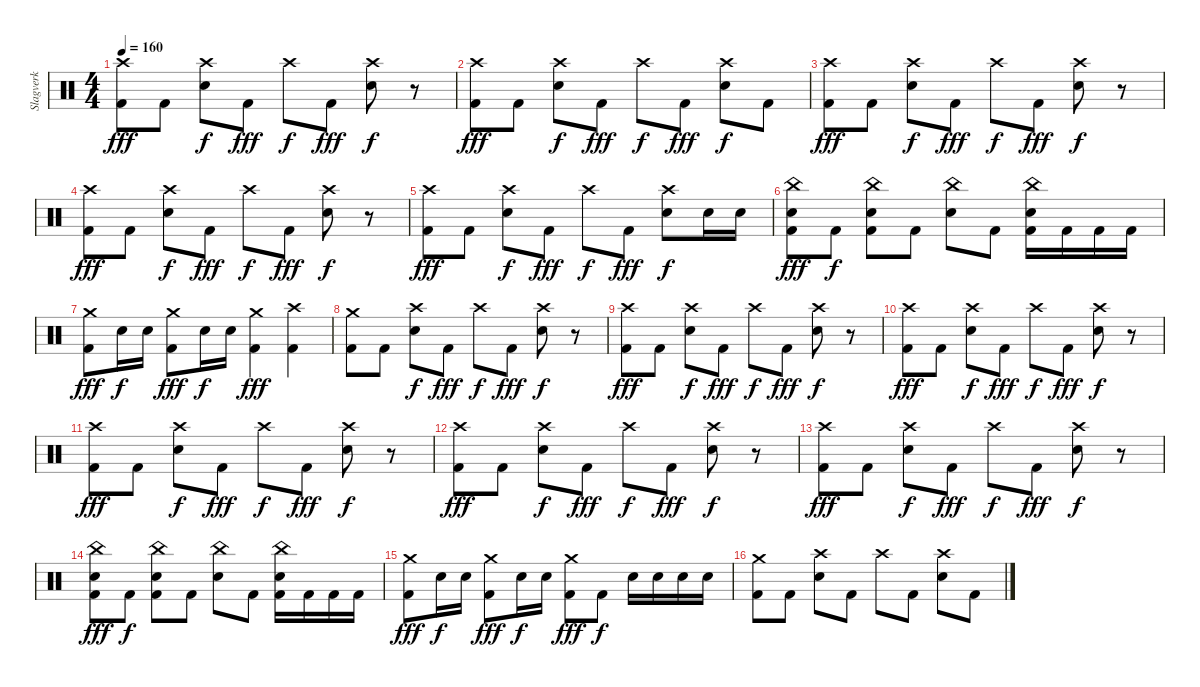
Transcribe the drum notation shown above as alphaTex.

\track ("Slagverk" "Slagverk") {instrument percussion}
\staff {score}
\articulation defaults
\ts (4 4)
\tempo 160
\clef neutral
\ks c
("Crash high (hit)" "Kick (hit) 2").8{dy fff} "Kick (hit) 2".8 ("Crash high (hit)" "Snare (hit) 2").8{dy f} "Kick (hit) 2".8{dy fff} "Crash high (hit)".8{dy f} "Kick (hit) 2".8{dy fff} ("Crash high (hit)" "Snare (hit) 2").8{dy f} r.8 |
("Crash high (hit)" "Kick (hit) 2").8{dy fff} "Kick (hit) 2".8 ("Crash high (hit)" "Snare (hit) 2").8{dy f} "Kick (hit) 2".8{dy fff} "Crash high (hit)".8{dy f} "Kick (hit) 2".8{dy fff} ("Crash high (hit)" "Snare (hit) 2").8{dy f} "Kick (hit) 2".8 |
("Crash high (hit)" "Kick (hit) 2").8{dy fff} "Kick (hit) 2".8 ("Crash high (hit)" "Snare (hit) 2").8{dy f} "Kick (hit) 2".8{dy fff} "Crash high (hit)".8{dy f} "Kick (hit) 2".8{dy fff} ("Crash high (hit)" "Snare (hit) 2").8{dy f} r.8 |
("Crash high (hit)" "Kick (hit) 2").8{dy fff} "Kick (hit) 2".8 ("Crash high (hit)" "Snare (hit) 2").8{dy f} "Kick (hit) 2".8{dy fff} "Crash high (hit)".8{dy f} "Kick (hit) 2".8{dy fff} ("Crash high (hit)" "Snare (hit) 2").8{dy f} r.8 |
("Crash high (hit)" "Kick (hit) 2").8{dy fff} "Kick (hit) 2".8 ("Crash high (hit)" "Snare (hit) 2").8{dy f} "Kick (hit) 2".8{dy fff} "Crash high (hit)".8{dy f} "Kick (hit) 2".8{dy fff} ("Crash high (hit)" "Snare (hit) 2").8{dy f} "Snare (hit) 2".16 "Snare (hit) 2".16 |
("China (hit)" "Snare (hit) 2" "Kick (hit) 2").8{dy fff} "Kick (hit) 2".8{dy f} ("China (hit)" "Snare (hit) 2" "Kick (hit) 2").8 "Kick (hit) 2".8 ("China (hit)" "Snare (hit) 2").8 "Kick (hit) 2".8 ("China (hit)" "Snare (hit) 2" "Kick (hit) 2").16 "Kick (hit) 2".16 "Kick (hit) 2".16 "Kick (hit) 2".16 |
("Crash medium (hit)" "Kick (hit) 2").8{dy fff} "Snare (hit) 2".16{dy f} "Snare (hit) 2".16 ("Crash medium (hit)" "Kick (hit) 2").8{dy fff} "Snare (hit) 2".16{dy f} "Snare (hit) 2".16 ("Crash medium (hit)" "Kick (hit) 2").4{dy fff} ("Crash high (hit)" "Kick (hit) 2").4 |
("Crash medium (hit)" "Kick (hit) 2").8 "Kick (hit) 2".8 ("Crash high (hit)" "Snare (hit) 2").8{dy f} "Kick (hit) 2".8{dy fff} "Crash high (hit)".8{dy f} "Kick (hit) 2".8{dy fff} ("Crash high (hit)" "Snare (hit) 2").8{dy f} r.8 |
("Crash high (hit)" "Kick (hit) 2").8{dy fff} "Kick (hit) 2".8 ("Crash high (hit)" "Snare (hit) 2").8{dy f} "Kick (hit) 2".8{dy fff} "Crash high (hit)".8{dy f} "Kick (hit) 2".8{dy fff} ("Crash high (hit)" "Snare (hit) 2").8{dy f} r.8 |
("Crash high (hit)" "Kick (hit) 2").8{dy fff} "Kick (hit) 2".8 ("Crash high (hit)" "Snare (hit) 2").8{dy f} "Kick (hit) 2".8{dy fff} "Crash high (hit)".8{dy f} "Kick (hit) 2".8{dy fff} ("Crash high (hit)" "Snare (hit) 2").8{dy f} r.8 |
("Crash high (hit)" "Kick (hit) 2").8{dy fff} "Kick (hit) 2".8 ("Crash high (hit)" "Snare (hit) 2").8{dy f} "Kick (hit) 2".8{dy fff} "Crash high (hit)".8{dy f} "Kick (hit) 2".8{dy fff} ("Crash high (hit)" "Snare (hit) 2").8{dy f} r.8 |
("Crash high (hit)" "Kick (hit) 2").8{dy fff} "Kick (hit) 2".8 ("Crash high (hit)" "Snare (hit) 2").8{dy f} "Kick (hit) 2".8{dy fff} "Crash high (hit)".8{dy f} "Kick (hit) 2".8{dy fff} ("Crash high (hit)" "Snare (hit) 2").8{dy f} r.8 |
("Crash high (hit)" "Kick (hit) 2").8{dy fff} "Kick (hit) 2".8 ("Crash high (hit)" "Snare (hit) 2").8{dy f} "Kick (hit) 2".8{dy fff} "Crash high (hit)".8{dy f} "Kick (hit) 2".8{dy fff} ("Crash high (hit)" "Snare (hit) 2").8{dy f} r.8 |
("China (hit)" "Snare (hit) 2" "Kick (hit) 2").8{dy fff} "Kick (hit) 2".8{dy f} ("China (hit)" "Snare (hit) 2" "Kick (hit) 2").8 "Kick (hit) 2".8 ("China (hit)" "Snare (hit) 2").8 "Kick (hit) 2".8 ("China (hit)" "Snare (hit) 2" "Kick (hit) 2").16 "Kick (hit) 2".16 "Kick (hit) 2".16 "Kick (hit) 2".16 |
("Crash medium (hit)" "Kick (hit) 2").8{dy fff} "Snare (hit) 2".16{dy f} "Snare (hit) 2".16 ("Crash medium (hit)" "Kick (hit) 2").8{dy fff} "Snare (hit) 2".16{dy f} "Snare (hit) 2".16 ("Crash medium (hit)" "Kick (hit) 2").8{dy fff} "Kick (hit) 2".8{dy f} "Snare (hit) 2".16 "Snare (hit) 2".16 "Snare (hit) 2".16 "Snare (hit) 2".16 |
("Crash medium (hit)" "Kick (hit) 2").8 "Kick (hit) 2".8 ("Crash high (hit)" "Snare (hit) 2").8 "Kick (hit) 2".8 "Crash high (hit)".8 "Kick (hit) 2".8 ("Crash high (hit)" "Snare (hit) 2").8 "Kick (hit) 2".8
